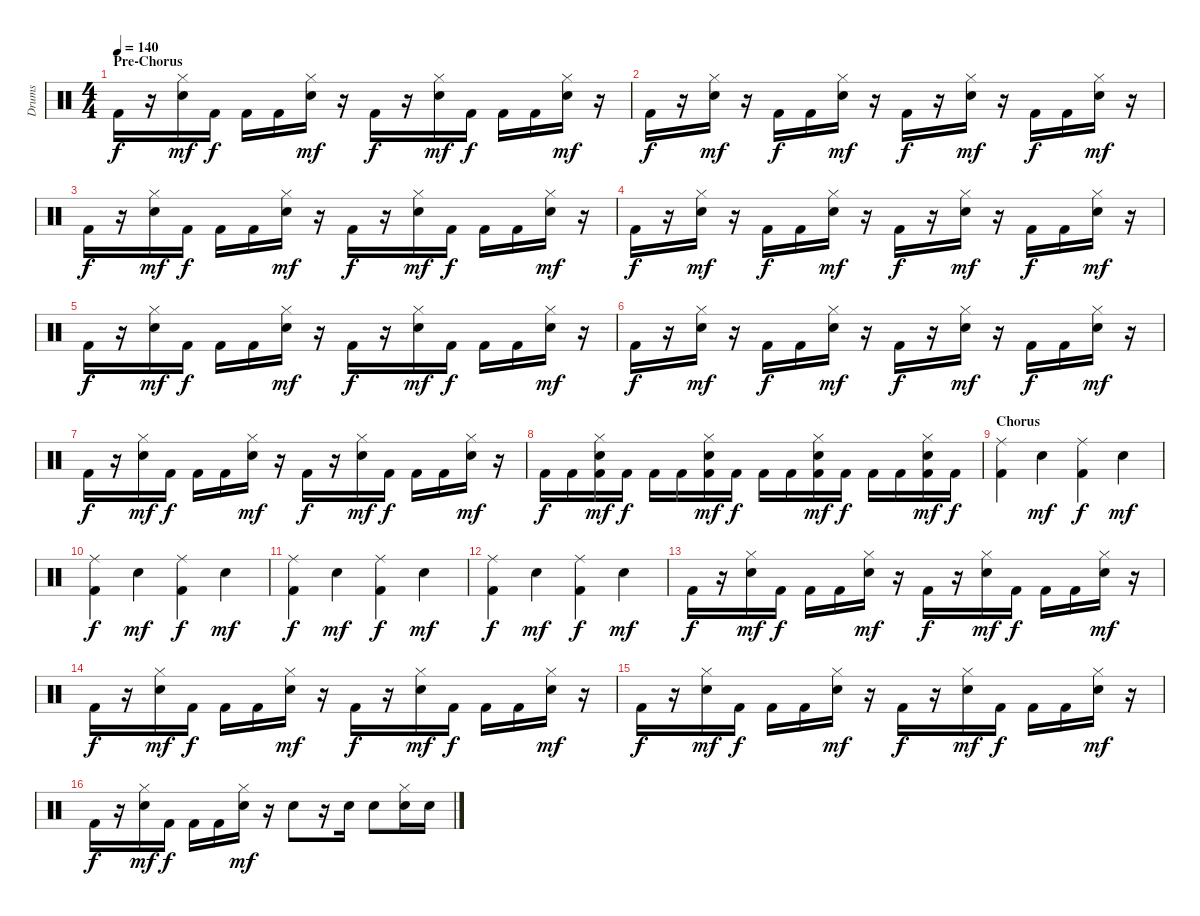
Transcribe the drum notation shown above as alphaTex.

\track ("Drums" "Drums") {instrument percussion}
\staff {score}
\articulation defaults
\ts (4 4)
\section ("" "Pre-Chorus")
\tempo 140
\clef neutral
\ks c "Kick (hit) 2".16{dy f}
r.16 ("Snare (hit) 2" "Hi-Hat (closed)").16{dy mf} "Kick (hit) 2".16{dy f} "Kick (hit) 2".16 "Kick (hit) 2".16 ("Snare (hit) 2" "Hi-Hat (closed)").16{dy mf} r.16 "Kick (hit) 2".16{dy f} r.16 ("Snare (hit) 2" "Hi-Hat (closed)").16{dy mf} "Kick (hit) 2".16{dy f} "Kick (hit) 2".16 "Kick (hit) 2".16 ("Snare (hit) 2" "Hi-Hat (closed)").16{dy mf} r.16 |
"Kick (hit) 2".16{dy f} r.16 ("Snare (hit) 2" "Hi-Hat (closed)").16{dy mf} r.16 "Kick (hit) 2".16{dy f} "Kick (hit) 2".16 ("Snare (hit) 2" "Hi-Hat (closed)").16{dy mf} r.16 "Kick (hit) 2".16{dy f} r.16 ("Snare (hit) 2" "Hi-Hat (closed)").16{dy mf} r.16 "Kick (hit) 2".16{dy f} "Kick (hit) 2".16 ("Snare (hit) 2" "Hi-Hat (closed)").16{dy mf} r.16 |
"Kick (hit) 2".16{dy f} r.16 ("Snare (hit) 2" "Hi-Hat (closed)").16{dy mf} "Kick (hit) 2".16{dy f} "Kick (hit) 2".16 "Kick (hit) 2".16 ("Snare (hit) 2" "Hi-Hat (closed)").16{dy mf} r.16 "Kick (hit) 2".16{dy f} r.16 ("Snare (hit) 2" "Hi-Hat (closed)").16{dy mf} "Kick (hit) 2".16{dy f} "Kick (hit) 2".16 "Kick (hit) 2".16 ("Snare (hit) 2" "Hi-Hat (closed)").16{dy mf} r.16 |
"Kick (hit) 2".16{dy f} r.16 ("Snare (hit) 2" "Hi-Hat (closed)").16{dy mf} r.16 "Kick (hit) 2".16{dy f} "Kick (hit) 2".16 ("Snare (hit) 2" "Hi-Hat (closed)").16{dy mf} r.16 "Kick (hit) 2".16{dy f} r.16 ("Snare (hit) 2" "Hi-Hat (closed)").16{dy mf} r.16 "Kick (hit) 2".16{dy f} "Kick (hit) 2".16 ("Snare (hit) 2" "Hi-Hat (closed)").16{dy mf} r.16 |
"Kick (hit) 2".16{dy f} r.16 ("Snare (hit) 2" "Hi-Hat (closed)").16{dy mf} "Kick (hit) 2".16{dy f} "Kick (hit) 2".16 "Kick (hit) 2".16 ("Snare (hit) 2" "Hi-Hat (closed)").16{dy mf} r.16 "Kick (hit) 2".16{dy f} r.16 ("Snare (hit) 2" "Hi-Hat (closed)").16{dy mf} "Kick (hit) 2".16{dy f} "Kick (hit) 2".16 "Kick (hit) 2".16 ("Snare (hit) 2" "Hi-Hat (closed)").16{dy mf} r.16 |
"Kick (hit) 2".16{dy f} r.16 ("Snare (hit) 2" "Hi-Hat (closed)").16{dy mf} r.16 "Kick (hit) 2".16{dy f} "Kick (hit) 2".16 ("Snare (hit) 2" "Hi-Hat (closed)").16{dy mf} r.16 "Kick (hit) 2".16{dy f} r.16 ("Snare (hit) 2" "Hi-Hat (closed)").16{dy mf} r.16 "Kick (hit) 2".16{dy f} "Kick (hit) 2".16 ("Snare (hit) 2" "Hi-Hat (closed)").16{dy mf} r.16 |
"Kick (hit) 2".16{dy f} r.16 ("Snare (hit) 2" "Hi-Hat (closed)").16{dy mf} "Kick (hit) 2".16{dy f} "Kick (hit) 2".16 "Kick (hit) 2".16 ("Snare (hit) 2" "Hi-Hat (closed)").16{dy mf} r.16 "Kick (hit) 2".16{dy f} r.16 ("Snare (hit) 2" "Hi-Hat (closed)").16{dy mf} "Kick (hit) 2".16{dy f} "Kick (hit) 2".16 "Kick (hit) 2".16 ("Snare (hit) 2" "Hi-Hat (closed)").16{dy mf} r.16 |
"Kick (hit) 2".16{dy f} "Kick (hit) 2".16 ("Kick (hit) 2" "Snare (hit) 2" "Hi-Hat (closed)").16{dy mf} "Kick (hit) 2".16{dy f} "Kick (hit) 2".16 "Kick (hit) 2".16 ("Kick (hit) 2" "Snare (hit) 2" "Hi-Hat (closed)").16{dy mf} "Kick (hit) 2".16{dy f} "Kick (hit) 2".16 "Kick (hit) 2".16 ("Kick (hit) 2" "Snare (hit) 2" "Hi-Hat (closed)").16{dy mf} "Kick (hit) 2".16{dy f} "Kick (hit) 2".16 "Kick (hit) 2".16 ("Kick (hit) 2" "Snare (hit) 2" "Hi-Hat (closed)").16{dy mf} "Kick (hit) 2".16{dy f} |
\section ("" "Chorus")
("Kick (hit) 2" "Ride (middle)").4 "Snare (hit) 2".4{dy mf} ("Kick (hit) 2" "Ride (middle)").4{dy f} "Snare (hit) 2".4{dy mf} |
("Kick (hit) 2" "Ride (middle)").4{dy f} "Snare (hit) 2".4{dy mf} ("Kick (hit) 2" "Ride (middle)").4{dy f} "Snare (hit) 2".4{dy mf} |
("Kick (hit) 2" "Ride (middle)").4{dy f} "Snare (hit) 2".4{dy mf} ("Kick (hit) 2" "Ride (middle)").4{dy f} "Snare (hit) 2".4{dy mf} |
("Kick (hit) 2" "Ride (middle)").4{dy f} "Snare (hit) 2".4{dy mf} ("Kick (hit) 2" "Ride (middle)").4{dy f} "Snare (hit) 2".4{dy mf} |
"Kick (hit) 2".16{dy f} r.16 ("Snare (hit) 2" "Hi-Hat (closed)").16{dy mf} "Kick (hit) 2".16{dy f} "Kick (hit) 2".16 "Kick (hit) 2".16 ("Snare (hit) 2" "Hi-Hat (closed)").16{dy mf} r.16 "Kick (hit) 2".16{dy f} r.16 ("Snare (hit) 2" "Hi-Hat (closed)").16{dy mf} "Kick (hit) 2".16{dy f} "Kick (hit) 2".16 "Kick (hit) 2".16 ("Snare (hit) 2" "Hi-Hat (closed)").16{dy mf} r.16 |
"Kick (hit) 2".16{dy f} r.16 ("Snare (hit) 2" "Hi-Hat (closed)").16{dy mf} "Kick (hit) 2".16{dy f} "Kick (hit) 2".16 "Kick (hit) 2".16 ("Snare (hit) 2" "Hi-Hat (closed)").16{dy mf} r.16 "Kick (hit) 2".16{dy f} r.16 ("Snare (hit) 2" "Hi-Hat (closed)").16{dy mf} "Kick (hit) 2".16{dy f} "Kick (hit) 2".16 "Kick (hit) 2".16 ("Snare (hit) 2" "Hi-Hat (closed)").16{dy mf} r.16 |
"Kick (hit) 2".16{dy f} r.16 ("Snare (hit) 2" "Hi-Hat (closed)").16{dy mf} "Kick (hit) 2".16{dy f} "Kick (hit) 2".16 "Kick (hit) 2".16 ("Snare (hit) 2" "Hi-Hat (closed)").16{dy mf} r.16 "Kick (hit) 2".16{dy f} r.16 ("Snare (hit) 2" "Hi-Hat (closed)").16{dy mf} "Kick (hit) 2".16{dy f} "Kick (hit) 2".16 "Kick (hit) 2".16 ("Snare (hit) 2" "Hi-Hat (closed)").16{dy mf} r.16 |
"Kick (hit) 2".16{dy f} r.16 ("Snare (hit) 2" "Hi-Hat (closed)").16{dy mf} "Kick (hit) 2".16{dy f} "Kick (hit) 2".16 "Kick (hit) 2".16 ("Snare (hit) 2" "Hi-Hat (closed)").16{dy mf} r.16 "Snare (hit) 2".8 r.16 "Snare (hit) 2".16 "Snare (hit) 2".8 ("Snare (hit) 2" "Hi-Hat (closed)").16 "Snare (hit) 2".16
